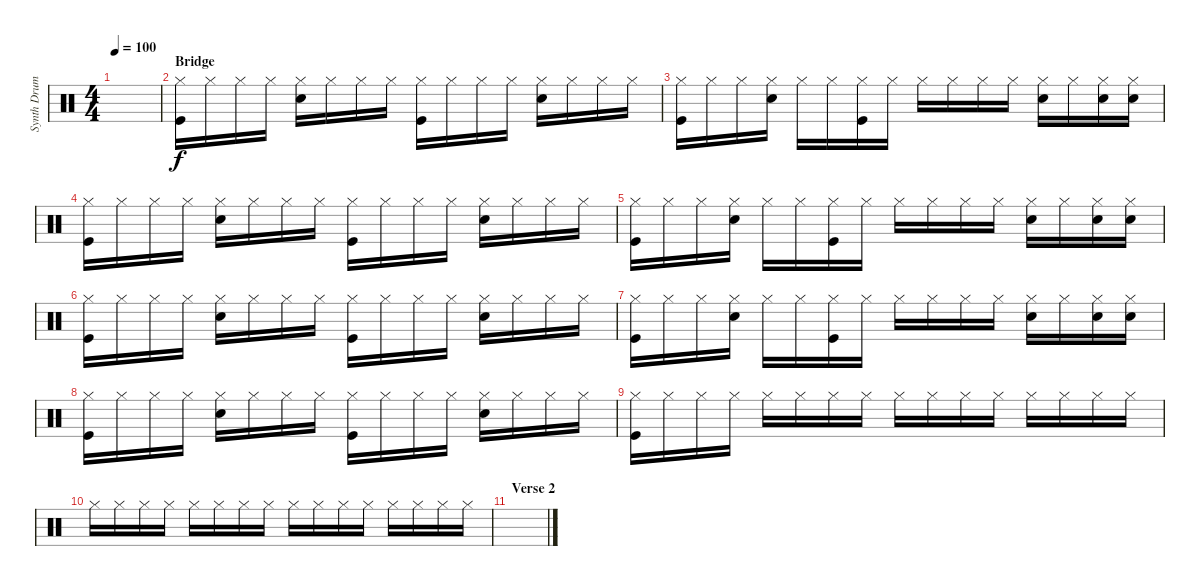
\track ("Synth Drums - John F" "Synth Drum") {instrument percussion}
\staff {score}
\articulation defaults
\ts (4 4)
\tempo 100
\clef neutral
\ks c
|
\section ("" "Bridge")
("Hi-Hat (closed)" "Kick (hit)").16{dy f} "Hi-Hat (closed)".16 "Hi-Hat (closed)".16 "Hi-Hat (closed)".16 ("Hi-Hat (closed)" "Snare (hit) 2").16 "Hi-Hat (closed)".16 "Hi-Hat (closed)".16 "Hi-Hat (closed)".16 ("Hi-Hat (closed)" "Kick (hit)").16 "Hi-Hat (closed)".16 "Hi-Hat (closed)".16 "Hi-Hat (closed)".16 ("Hi-Hat (closed)" "Snare (hit) 2").16 "Hi-Hat (closed)".16 "Hi-Hat (closed)".16 "Hi-Hat (closed)".16 |
("Hi-Hat (closed)" "Kick (hit)").16 "Hi-Hat (closed)".16 "Hi-Hat (closed)".16 ("Hi-Hat (closed)" "Snare (hit) 2").16 "Hi-Hat (closed)".16 "Hi-Hat (closed)".16 ("Hi-Hat (closed)" "Kick (hit)").16 "Hi-Hat (closed)".16 "Hi-Hat (closed)".16 "Hi-Hat (closed)".16 "Hi-Hat (closed)".16 "Hi-Hat (closed)".16 ("Hi-Hat (closed)" "Snare (hit) 2").16 "Hi-Hat (closed)".16 ("Hi-Hat (closed)" "Snare (hit) 2").16 ("Hi-Hat (closed)" "Snare (hit) 2").16 |
("Hi-Hat (closed)" "Kick (hit)").16 "Hi-Hat (closed)".16 "Hi-Hat (closed)".16 "Hi-Hat (closed)".16 ("Hi-Hat (closed)" "Snare (hit) 2").16 "Hi-Hat (closed)".16 "Hi-Hat (closed)".16 "Hi-Hat (closed)".16 ("Hi-Hat (closed)" "Kick (hit)").16 "Hi-Hat (closed)".16 "Hi-Hat (closed)".16 "Hi-Hat (closed)".16 ("Hi-Hat (closed)" "Snare (hit) 2").16 "Hi-Hat (closed)".16 "Hi-Hat (closed)".16 "Hi-Hat (closed)".16 |
("Hi-Hat (closed)" "Kick (hit)").16 "Hi-Hat (closed)".16 "Hi-Hat (closed)".16 ("Hi-Hat (closed)" "Snare (hit) 2").16 "Hi-Hat (closed)".16 "Hi-Hat (closed)".16 ("Hi-Hat (closed)" "Kick (hit)").16 "Hi-Hat (closed)".16 "Hi-Hat (closed)".16 "Hi-Hat (closed)".16 "Hi-Hat (closed)".16 "Hi-Hat (closed)".16 ("Hi-Hat (closed)" "Snare (hit) 2").16 "Hi-Hat (closed)".16 ("Hi-Hat (closed)" "Snare (hit) 2").16 ("Hi-Hat (closed)" "Snare (hit) 2").16 |
("Hi-Hat (closed)" "Kick (hit)").16 "Hi-Hat (closed)".16 "Hi-Hat (closed)".16 "Hi-Hat (closed)".16 ("Hi-Hat (closed)" "Snare (hit) 2").16 "Hi-Hat (closed)".16 "Hi-Hat (closed)".16 "Hi-Hat (closed)".16 ("Hi-Hat (closed)" "Kick (hit)").16 "Hi-Hat (closed)".16 "Hi-Hat (closed)".16 "Hi-Hat (closed)".16 ("Hi-Hat (closed)" "Snare (hit) 2").16 "Hi-Hat (closed)".16 "Hi-Hat (closed)".16 "Hi-Hat (closed)".16 |
("Hi-Hat (closed)" "Kick (hit)").16 "Hi-Hat (closed)".16 "Hi-Hat (closed)".16 ("Hi-Hat (closed)" "Snare (hit) 2").16 "Hi-Hat (closed)".16 "Hi-Hat (closed)".16 ("Hi-Hat (closed)" "Kick (hit)").16 "Hi-Hat (closed)".16 "Hi-Hat (closed)".16 "Hi-Hat (closed)".16 "Hi-Hat (closed)".16 "Hi-Hat (closed)".16 ("Hi-Hat (closed)" "Snare (hit) 2").16 "Hi-Hat (closed)".16 ("Hi-Hat (closed)" "Snare (hit) 2").16 ("Hi-Hat (closed)" "Snare (hit) 2").16 |
("Hi-Hat (closed)" "Kick (hit)").16 "Hi-Hat (closed)".16 "Hi-Hat (closed)".16 "Hi-Hat (closed)".16 ("Hi-Hat (closed)" "Snare (hit) 2").16 "Hi-Hat (closed)".16 "Hi-Hat (closed)".16 "Hi-Hat (closed)".16 ("Hi-Hat (closed)" "Kick (hit)").16 "Hi-Hat (closed)".16 "Hi-Hat (closed)".16 "Hi-Hat (closed)".16 ("Hi-Hat (closed)" "Snare (hit) 2").16 "Hi-Hat (closed)".16 "Hi-Hat (closed)".16 "Hi-Hat (closed)".16 |
("Hi-Hat (closed)" "Kick (hit)").16 "Hi-Hat (closed)".16 "Hi-Hat (closed)".16 "Hi-Hat (closed)".16 "Hi-Hat (closed)".16 "Hi-Hat (closed)".16 "Hi-Hat (closed)".16 "Hi-Hat (closed)".16 "Hi-Hat (closed)".16 "Hi-Hat (closed)".16 "Hi-Hat (closed)".16 "Hi-Hat (closed)".16 "Hi-Hat (closed)".16 "Hi-Hat (closed)".16 "Hi-Hat (closed)".16 "Hi-Hat (closed)".16 |
"Hi-Hat (closed)".16{volume 0} "Hi-Hat (closed)".16 "Hi-Hat (closed)".16 "Hi-Hat (closed)".16 "Hi-Hat (closed)".16 "Hi-Hat (closed)".16 "Hi-Hat (closed)".16 "Hi-Hat (closed)".16 "Hi-Hat (closed)".16 "Hi-Hat (closed)".16 "Hi-Hat (closed)".16 "Hi-Hat (closed)".16 "Hi-Hat (closed)".16 "Hi-Hat (closed)".16 "Hi-Hat (closed)".16 "Hi-Hat (closed)".16 |
\section ("" "Verse 2")
